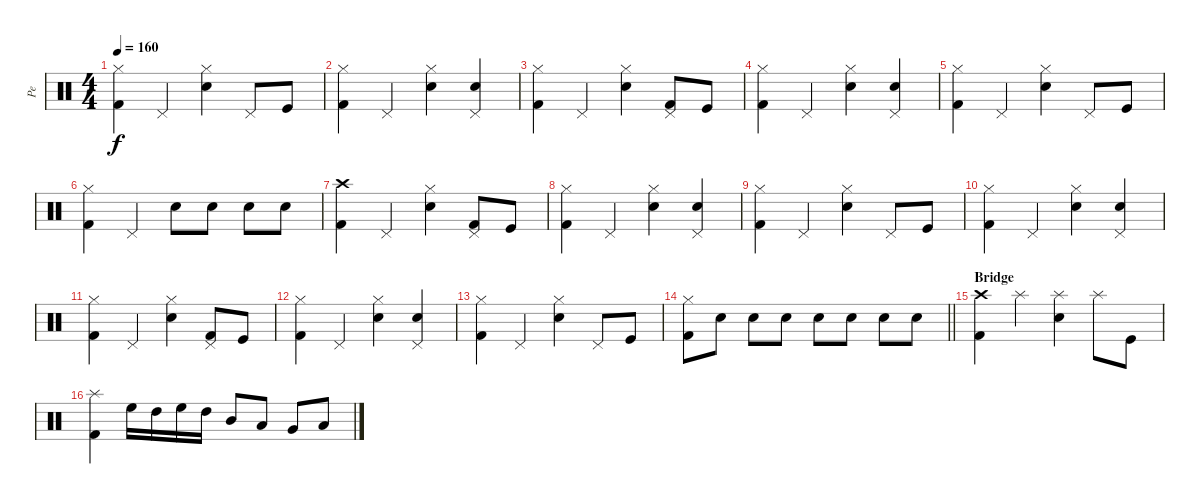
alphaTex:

\track ("Pe" "Pe") {instrument percussion}
\staff {score}
\articulation defaults
\ts (4 4)
\tempo 160
\clef neutral
\ks c
("Kick (hit) 2" "Hi-Hat (closed)").4{dy f} "Pedal Hi-Hat (hit)".4 ("Electric Snare (hit)" "Hi-Hat (closed)").4 "Pedal Hi-Hat (hit)".8 "Kick (hit)".8 |
("Kick (hit) 2" "Hi-Hat (closed)").4 "Pedal Hi-Hat (hit)".4 ("Electric Snare (hit)" "Hi-Hat (closed)").4 ("Electric Snare (hit)" "Pedal Hi-Hat (hit)").4 |
("Kick (hit) 2" "Hi-Hat (closed)").4 "Pedal Hi-Hat (hit)".4 ("Electric Snare (hit)" "Hi-Hat (closed)").4 ("Kick (hit) 2" "Pedal Hi-Hat (hit)").8 "Kick (hit)".8 |
("Kick (hit) 2" "Hi-Hat (closed)").4 "Pedal Hi-Hat (hit)".4 ("Electric Snare (hit)" "Hi-Hat (closed)").4 ("Electric Snare (hit)" "Pedal Hi-Hat (hit)").4 |
("Kick (hit) 2" "Hi-Hat (closed)").4 "Pedal Hi-Hat (hit)".4 ("Electric Snare (hit)" "Hi-Hat (closed)").4 "Pedal Hi-Hat (hit)".8 "Kick (hit)".8 |
("Kick (hit) 2" "Hi-Hat (closed)").4 "Pedal Hi-Hat (hit)".4 "Electric Snare (hit)".8 "Electric Snare (hit)".8 "Electric Snare (hit)".8 "Electric Snare (hit)".8 |
("Kick (hit) 2" "Crash high (hit)").4 "Pedal Hi-Hat (hit)".4 ("Electric Snare (hit)" "Hi-Hat (closed)").4 ("Kick (hit) 2" "Pedal Hi-Hat (hit)").8 "Kick (hit)".8 |
("Kick (hit) 2" "Hi-Hat (closed)").4 "Pedal Hi-Hat (hit)".4 ("Electric Snare (hit)" "Hi-Hat (closed)").4 ("Electric Snare (hit)" "Pedal Hi-Hat (hit)").4 |
("Kick (hit) 2" "Hi-Hat (closed)").4 "Pedal Hi-Hat (hit)".4 ("Electric Snare (hit)" "Hi-Hat (closed)").4 "Pedal Hi-Hat (hit)".8 "Kick (hit)".8 |
("Kick (hit) 2" "Hi-Hat (closed)").4 "Pedal Hi-Hat (hit)".4 ("Electric Snare (hit)" "Hi-Hat (closed)").4 ("Electric Snare (hit)" "Pedal Hi-Hat (hit)").4 |
("Kick (hit) 2" "Hi-Hat (closed)").4 "Pedal Hi-Hat (hit)".4 ("Electric Snare (hit)" "Hi-Hat (closed)").4 ("Kick (hit) 2" "Pedal Hi-Hat (hit)").8 "Kick (hit)".8 |
("Kick (hit) 2" "Hi-Hat (closed)").4 "Pedal Hi-Hat (hit)".4 ("Electric Snare (hit)" "Hi-Hat (closed)").4 ("Electric Snare (hit)" "Pedal Hi-Hat (hit)").4 |
("Kick (hit) 2" "Hi-Hat (closed)").4 "Pedal Hi-Hat (hit)".4 ("Electric Snare (hit)" "Hi-Hat (closed)").4 "Pedal Hi-Hat (hit)".8 "Kick (hit)".8 |
\barLineRight lightlight
("Kick (hit) 2" "Hi-Hat (closed)").8 "Electric Snare (hit)".8 "Electric Snare (hit)".8 "Electric Snare (hit)".8 "Electric Snare (hit)".8 "Electric Snare (hit)".8 "Electric Snare (hit)".8 "Electric Snare (hit)".8 |
\section ("" "Bridge")
("Kick (hit) 2" "Crash high (hit)").4 "Splash (hit)".4 ("Electric Snare (hit)" "Splash (hit)").4 "Splash (hit)".8 "Kick (hit)".8 |
("Kick (hit) 2" "Splash (hit)").4 "High Floor Tom (hit)".16 "High Tom (hit)".16 "High Floor Tom (hit)".16 "High Tom (hit)".16 "Mid Tom (hit)".8 "Low Tom (hit)".8 "Very Low Tom (hit)".8 "Low Floor Tom (hit)".8
